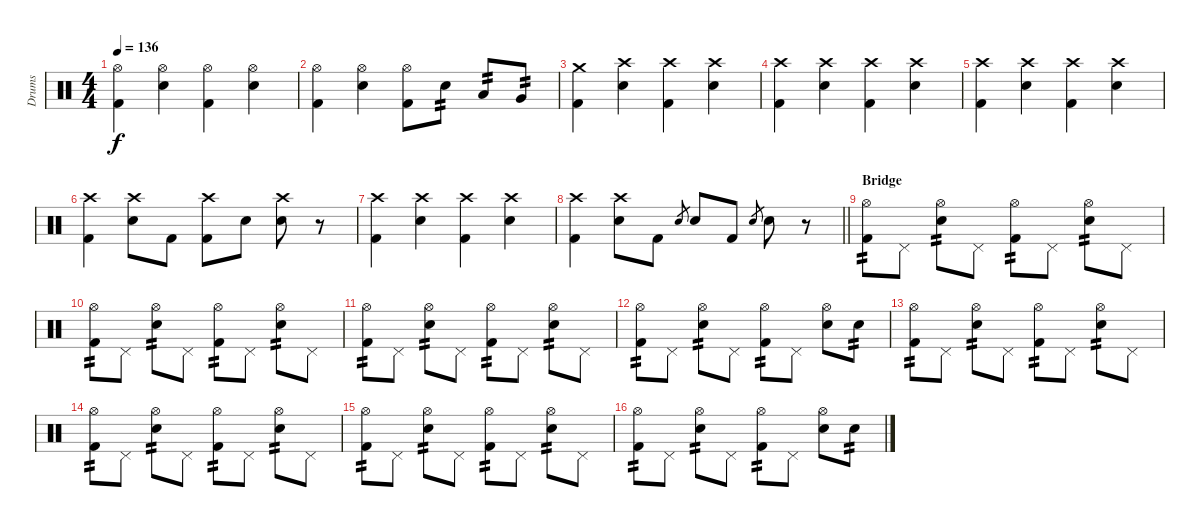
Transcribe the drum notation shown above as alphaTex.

\track ("Drums" "Drums") {instrument percussion}
\staff {score}
\articulation defaults
\ts (4 4)
\tempo 136
\clef neutral
\ks c
("Hi-Hat (open)" "Kick (hit) 2").4{dy f} ("Hi-Hat (open)" "Snare (hit) 2").4 ("Hi-Hat (open)" "Kick (hit) 2").4 ("Hi-Hat (open)" "Snare (hit) 2").4 |
("Hi-Hat (open)" "Kick (hit) 2").4 ("Hi-Hat (open)" "Snare (hit) 2").4 ("Hi-Hat (open)" "Kick (hit) 2").8 "Snare (hit) 2".8{tp 2} "Low Tom (hit)".8{tp 2} "Very Low Tom (hit)".8{tp 2} |
("Crash medium (hit)" "Kick (hit) 2").4 ("Crash high (hit)" "Snare (hit) 2").4 ("Crash high (hit)" "Kick (hit) 2").4 ("Crash high (hit)" "Snare (hit) 2").4 |
("Crash high (hit)" "Kick (hit) 2").4 ("Crash high (hit)" "Snare (hit) 2").4 ("Crash high (hit)" "Kick (hit) 2").4 ("Crash high (hit)" "Snare (hit) 2").4 |
("Crash high (hit)" "Kick (hit) 2").4 ("Crash high (hit)" "Snare (hit) 2").4 ("Crash high (hit)" "Kick (hit) 2").4 ("Crash high (hit)" "Snare (hit) 2").4 |
("Crash high (hit)" "Kick (hit) 2").4 ("Crash high (hit)" "Snare (hit) 2").8 "Kick (hit) 2".8 ("Crash high (hit)" "Kick (hit) 2").8 "Snare (hit) 2".8 ("Crash high (hit)" "Snare (hit) 2").8 r.8 |
("Crash high (hit)" "Kick (hit) 2").4 ("Crash high (hit)" "Snare (hit) 2").4 ("Crash high (hit)" "Kick (hit) 2").4 ("Crash high (hit)" "Snare (hit) 2").4 |
\barLineRight lightlight
("Crash high (hit)" "Kick (hit) 2").4 ("Crash high (hit)" "Snare (hit) 2").8 "Kick (hit) 2".8 "Snare (hit) 2".8{gr} "Snare (hit) 2".8 "Kick (hit) 2".8 "Snare (hit) 2".8{gr} "Snare (hit) 2".8 r.8 |
\section ("" "Bridge")
("Hi-Hat (open)" "Kick (hit) 2").8{tp 2} "Pedal Hi-Hat (hit)".8 ("Hi-Hat (open)" "Snare (hit) 2").8{tp 2} "Pedal Hi-Hat (hit)".8 ("Hi-Hat (open)" "Kick (hit) 2").8{tp 2} "Pedal Hi-Hat (hit)".8 ("Hi-Hat (open)" "Snare (hit) 2").8{tp 2} "Pedal Hi-Hat (hit)".8 |
("Hi-Hat (open)" "Kick (hit) 2").8{tp 2} "Pedal Hi-Hat (hit)".8 ("Hi-Hat (open)" "Snare (hit) 2").8{tp 2} "Pedal Hi-Hat (hit)".8 ("Hi-Hat (open)" "Kick (hit) 2").8{tp 2} "Pedal Hi-Hat (hit)".8 ("Hi-Hat (open)" "Snare (hit) 2").8{tp 2} "Pedal Hi-Hat (hit)".8 |
("Hi-Hat (open)" "Kick (hit) 2").8{tp 2} "Pedal Hi-Hat (hit)".8 ("Hi-Hat (open)" "Snare (hit) 2").8{tp 2} "Pedal Hi-Hat (hit)".8 ("Hi-Hat (open)" "Kick (hit) 2").8{tp 2} "Pedal Hi-Hat (hit)".8 ("Hi-Hat (open)" "Snare (hit) 2").8{tp 2} "Pedal Hi-Hat (hit)".8 |
("Hi-Hat (open)" "Kick (hit) 2").8{tp 2} "Pedal Hi-Hat (hit)".8 ("Hi-Hat (open)" "Snare (hit) 2").8{tp 2} "Pedal Hi-Hat (hit)".8 ("Hi-Hat (open)" "Kick (hit) 2").8{tp 2} "Pedal Hi-Hat (hit)".8 ("Hi-Hat (open)" "Snare (hit) 2").8 "Snare (hit) 2".8{tp 2} |
("Hi-Hat (open)" "Kick (hit) 2").8{tp 2} "Pedal Hi-Hat (hit)".8 ("Hi-Hat (open)" "Snare (hit) 2").8{tp 2} "Pedal Hi-Hat (hit)".8 ("Hi-Hat (open)" "Kick (hit) 2").8{tp 2} "Pedal Hi-Hat (hit)".8 ("Hi-Hat (open)" "Snare (hit) 2").8{tp 2} "Pedal Hi-Hat (hit)".8 |
("Hi-Hat (open)" "Kick (hit) 2").8{tp 2} "Pedal Hi-Hat (hit)".8 ("Hi-Hat (open)" "Snare (hit) 2").8{tp 2} "Pedal Hi-Hat (hit)".8 ("Hi-Hat (open)" "Kick (hit) 2").8{tp 2} "Pedal Hi-Hat (hit)".8 ("Hi-Hat (open)" "Snare (hit) 2").8{tp 2} "Pedal Hi-Hat (hit)".8 |
("Hi-Hat (open)" "Kick (hit) 2").8{tp 2} "Pedal Hi-Hat (hit)".8 ("Hi-Hat (open)" "Snare (hit) 2").8{tp 2} "Pedal Hi-Hat (hit)".8 ("Hi-Hat (open)" "Kick (hit) 2").8{tp 2} "Pedal Hi-Hat (hit)".8 ("Hi-Hat (open)" "Snare (hit) 2").8{tp 2} "Pedal Hi-Hat (hit)".8 |
("Hi-Hat (open)" "Kick (hit) 2").8{tp 2} "Pedal Hi-Hat (hit)".8 ("Hi-Hat (open)" "Snare (hit) 2").8{tp 2} "Pedal Hi-Hat (hit)".8 ("Hi-Hat (open)" "Kick (hit) 2").8{tp 2} "Pedal Hi-Hat (hit)".8 ("Hi-Hat (open)" "Snare (hit) 2").8 "Snare (hit) 2".8{tp 2}
